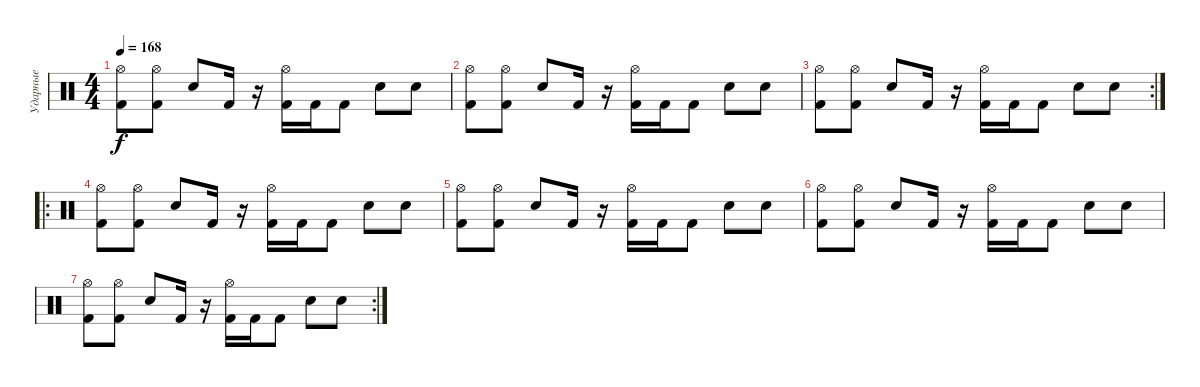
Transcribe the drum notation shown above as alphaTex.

\track ("Ударные" "Ударные") {instrument percussion}
\staff {score}
\articulation defaults
\ts (4 4)
\tempo 168
\clef neutral
\ks c
("Hi-Hat (open)" "Kick (hit) 2").8{dy f} ("Hi-Hat (open)" "Kick (hit) 2").8 "Electric Snare (hit)".8 "Kick (hit) 2".16 r.16 ("Hi-Hat (open)" "Kick (hit) 2").16 "Kick (hit) 2".16 "Kick (hit) 2".8 "Electric Snare (hit)".8 "Electric Snare (hit)".8 |
("Hi-Hat (open)" "Kick (hit) 2").8 ("Hi-Hat (open)" "Kick (hit) 2").8 "Electric Snare (hit)".8 "Kick (hit) 2".16 r.16 ("Hi-Hat (open)" "Kick (hit) 2").16 "Kick (hit) 2".16 "Kick (hit) 2".8 "Electric Snare (hit)".8 "Electric Snare (hit)".8 |
\rc 2
("Hi-Hat (open)" "Kick (hit) 2").8 ("Hi-Hat (open)" "Kick (hit) 2").8 "Electric Snare (hit)".8 "Kick (hit) 2".16 r.16 ("Hi-Hat (open)" "Kick (hit) 2").16 "Kick (hit) 2".16 "Kick (hit) 2".8 "Electric Snare (hit)".8 "Electric Snare (hit)".8 |
\ro
("Hi-Hat (open)" "Kick (hit) 2").8 ("Hi-Hat (open)" "Kick (hit) 2").8 "Electric Snare (hit)".8 "Kick (hit) 2".16 r.16 ("Hi-Hat (open)" "Kick (hit) 2").16 "Kick (hit) 2".16 "Kick (hit) 2".8 "Electric Snare (hit)".8 "Electric Snare (hit)".8 |
("Hi-Hat (open)" "Kick (hit) 2").8 ("Hi-Hat (open)" "Kick (hit) 2").8 "Electric Snare (hit)".8 "Kick (hit) 2".16 r.16 ("Hi-Hat (open)" "Kick (hit) 2").16 "Kick (hit) 2".16 "Kick (hit) 2".8 "Electric Snare (hit)".8 "Electric Snare (hit)".8 |
("Hi-Hat (open)" "Kick (hit) 2").8 ("Hi-Hat (open)" "Kick (hit) 2").8 "Electric Snare (hit)".8 "Kick (hit) 2".16 r.16 ("Hi-Hat (open)" "Kick (hit) 2").16 "Kick (hit) 2".16 "Kick (hit) 2".8 "Electric Snare (hit)".8 "Electric Snare (hit)".8 |
\rc 2
("Hi-Hat (open)" "Kick (hit) 2").8 ("Hi-Hat (open)" "Kick (hit) 2").8 "Electric Snare (hit)".8 "Kick (hit) 2".16 r.16 ("Hi-Hat (open)" "Kick (hit) 2").16 "Kick (hit) 2".16 "Kick (hit) 2".8 "Electric Snare (hit)".8 "Electric Snare (hit)".8
